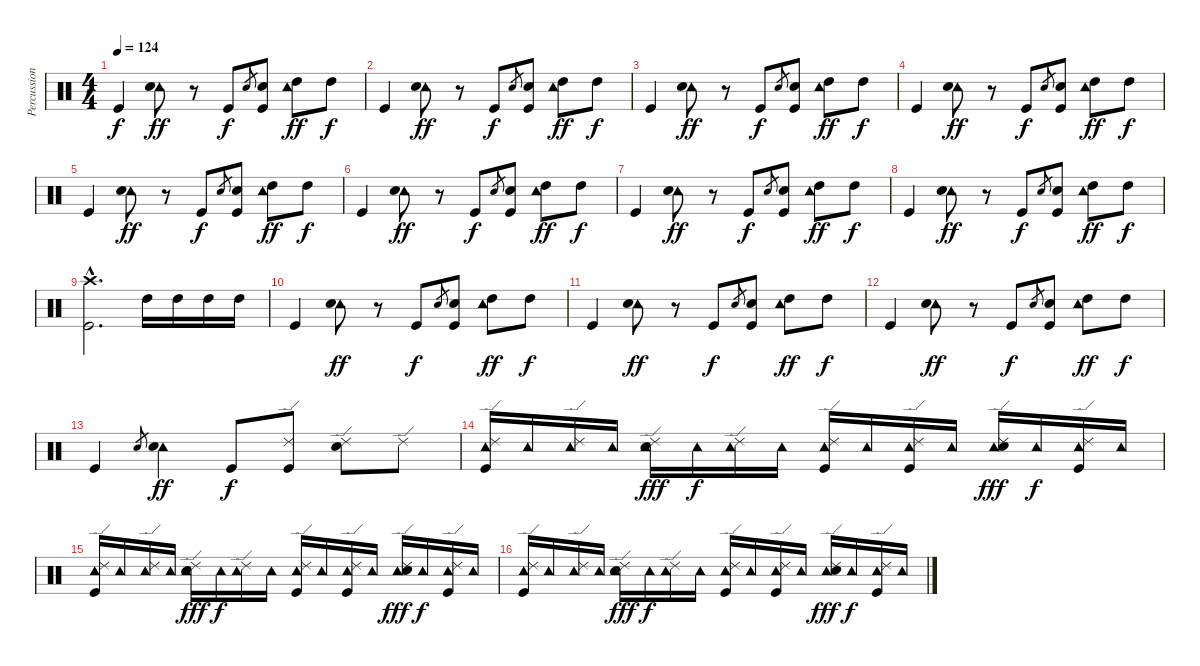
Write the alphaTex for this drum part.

\track ("Percussion" "Percussion") {instrument percussion}
\staff {score}
\articulation defaults
\ts (4 4)
\tempo 124
\clef neutral
\ks c "Kick (hit)".4{dy f}
("Tambourine (hit)" "Snare (hit) 2").8{dy ff} r.8 "Kick (hit)".8{dy f} "Snare (hit) 2".8{gr} ("Snare (hit) 2" "Kick (hit)").8 ("Tambourine (hit)" "High Tom (hit)").8{dy ff} "High Tom (hit)".8{dy f} |
"Kick (hit)".4 ("Tambourine (hit)" "Snare (hit) 2").8{dy ff} r.8 "Kick (hit)".8{dy f} "Snare (hit) 2".8{gr} ("Snare (hit) 2" "Kick (hit)").8 ("Tambourine (hit)" "High Tom (hit)").8{dy ff} "High Tom (hit)".8{dy f} |
"Kick (hit)".4 ("Tambourine (hit)" "Snare (hit) 2").8{dy ff} r.8 "Kick (hit)".8{dy f} "Snare (hit) 2".8{gr} ("Snare (hit) 2" "Kick (hit)").8 ("Tambourine (hit)" "High Tom (hit)").8{dy ff} "High Tom (hit)".8{dy f} |
"Kick (hit)".4 ("Tambourine (hit)" "Snare (hit) 2").8{dy ff} r.8 "Kick (hit)".8{dy f} "Snare (hit) 2".8{gr} ("Snare (hit) 2" "Kick (hit)").8 ("Tambourine (hit)" "High Tom (hit)").8{dy ff} "High Tom (hit)".8{dy f} |
"Kick (hit)".4 ("Tambourine (hit)" "Snare (hit) 2").8{dy ff} r.8 "Kick (hit)".8{dy f} "Snare (hit) 2".8{gr} ("Snare (hit) 2" "Kick (hit)").8 ("Tambourine (hit)" "High Tom (hit)").8{dy ff} "High Tom (hit)".8{dy f} |
"Kick (hit)".4 ("Tambourine (hit)" "Snare (hit) 2").8{dy ff} r.8 "Kick (hit)".8{dy f} "Snare (hit) 2".8{gr} ("Snare (hit) 2" "Kick (hit)").8 ("Tambourine (hit)" "High Tom (hit)").8{dy ff} "High Tom (hit)".8{dy f} |
"Kick (hit)".4 ("Tambourine (hit)" "Snare (hit) 2").8{dy ff} r.8 "Kick (hit)".8{dy f} "Snare (hit) 2".8{gr} ("Snare (hit) 2" "Kick (hit)").8 ("Tambourine (hit)" "High Tom (hit)").8{dy ff} "High Tom (hit)".8{dy f} |
"Kick (hit)".4 ("Tambourine (hit)" "Snare (hit) 2").8{dy ff} r.8 "Kick (hit)".8{dy f} "Snare (hit) 2".8{gr} ("Snare (hit) 2" "Kick (hit)").8 ("Tambourine (hit)" "High Tom (hit)").8{dy ff} "High Tom (hit)".8{dy f} |
("Crash high (hit)"{hac} "Kick (hit)"{hac}).2{d} "High Tom (hit)".16 "High Tom (hit)".16 "High Tom (hit)".16 "High Tom (hit)".16 |
"Kick (hit)".4 ("Tambourine (hit)" "Snare (hit) 2").8{dy ff} r.8 "Kick (hit)".8{dy f} "Snare (hit) 2".8{gr} ("Snare (hit) 2" "Kick (hit)").8 ("Tambourine (hit)" "High Tom (hit)").8{dy ff} "High Tom (hit)".8{dy f} |
"Kick (hit)".4 ("Tambourine (hit)" "Snare (hit) 2").8{dy ff} r.8 "Kick (hit)".8{dy f} "Snare (hit) 2".8{gr} ("Snare (hit) 2" "Kick (hit)").8 ("Tambourine (hit)" "High Tom (hit)").8{dy ff} "High Tom (hit)".8{dy f} |
"Kick (hit)".4 ("Tambourine (hit)" "Snare (hit) 2").8{dy ff} r.8 "Kick (hit)".8{dy f} "Snare (hit) 2".8{gr} ("Snare (hit) 2" "Kick (hit)").8 ("Tambourine (hit)" "High Tom (hit)").8{dy ff} "High Tom (hit)".8{dy f} |
"Kick (hit)".4 "Snare (hit) 2".8{gr} ("Tambourine (hit)" "Snare (hit) 2").4{dy ff} "Kick (hit)".8{dy f} ("Ride (edge) 2" "Kick (hit)").8 ("Ride (edge) 2" "Snare (hit) 2").8 "Ride (edge) 2".8 |
("Ride (edge) 2" "Tambourine (hit)" "Kick (hit)").16 "Tambourine (hit)".16 ("Ride (edge) 2" "Tambourine (hit)").16 "Tambourine (hit)".16 ("Ride (edge) 2" "Tambourine (hit)" "Snare (hit) 2").16{dy fff} "Tambourine (hit)".16{dy f} ("Ride (edge) 2" "Tambourine (hit)").16 "Tambourine (hit)".16 ("Ride (edge) 2" "Tambourine (hit)" "Kick (hit)").16 "Tambourine (hit)".16 ("Ride (edge) 2" "Tambourine (hit)" "Kick (hit)").16 "Tambourine (hit)".16 ("Ride (edge) 2" "Tambourine (hit)" "Snare (hit) 2").16{dy fff} "Tambourine (hit)".16{dy f} ("Ride (edge) 2" "Tambourine (hit)" "Kick (hit)").16 "Tambourine (hit)".16 |
("Ride (edge) 2" "Tambourine (hit)" "Kick (hit)").16 "Tambourine (hit)".16 ("Ride (edge) 2" "Tambourine (hit)").16 "Tambourine (hit)".16 ("Ride (edge) 2" "Tambourine (hit)" "Snare (hit) 2").16{dy fff} "Tambourine (hit)".16{dy f} ("Ride (edge) 2" "Tambourine (hit)").16 "Tambourine (hit)".16 ("Ride (edge) 2" "Tambourine (hit)" "Kick (hit)").16 "Tambourine (hit)".16 ("Ride (edge) 2" "Tambourine (hit)" "Kick (hit)").16 "Tambourine (hit)".16 ("Ride (edge) 2" "Tambourine (hit)" "Snare (hit) 2").16{dy fff} "Tambourine (hit)".16{dy f} ("Ride (edge) 2" "Tambourine (hit)" "Kick (hit)").16 "Tambourine (hit)".16 |
("Ride (edge) 2" "Tambourine (hit)" "Kick (hit)").16 "Tambourine (hit)".16 ("Ride (edge) 2" "Tambourine (hit)").16 "Tambourine (hit)".16 ("Ride (edge) 2" "Tambourine (hit)" "Snare (hit) 2").16{dy fff} "Tambourine (hit)".16{dy f} ("Ride (edge) 2" "Tambourine (hit)").16 "Tambourine (hit)".16 ("Ride (edge) 2" "Tambourine (hit)" "Kick (hit)").16 "Tambourine (hit)".16 ("Ride (edge) 2" "Tambourine (hit)" "Kick (hit)").16 "Tambourine (hit)".16 ("Ride (edge) 2" "Tambourine (hit)" "Snare (hit) 2").16{dy fff} "Tambourine (hit)".16{dy f} ("Ride (edge) 2" "Tambourine (hit)" "Kick (hit)").16 "Tambourine (hit)".16
